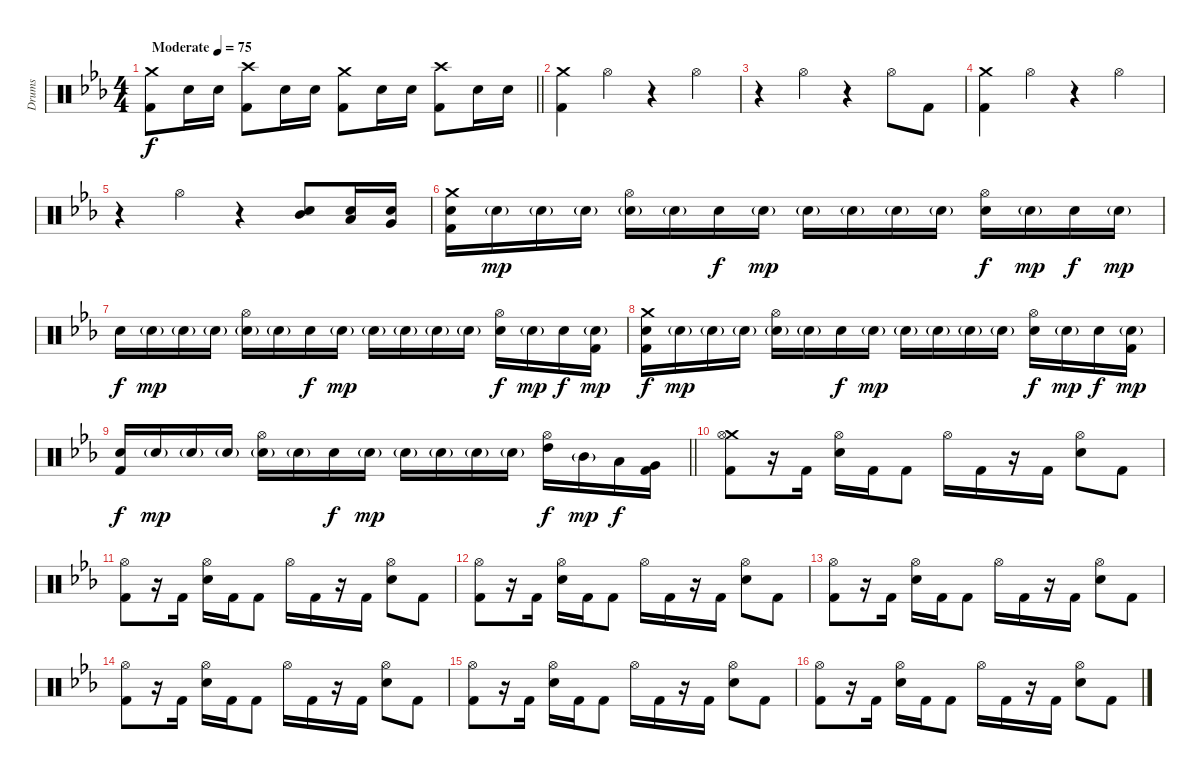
\track ("Drums" "Drums") {instrument percussion}
\staff {score}
\articulation defaults
\ts (4 4)
\tempo (75 "Moderate")
\clef neutral
\barLineRight lightlight
\ks cminor
("Crash medium (hit)" "Kick (hit) 2").8{dy f} "Electric Snare (hit)".16 "Electric Snare (hit)".16 ("Crash high (hit)" "Kick (hit) 2").8 "Electric Snare (hit)".16 "Electric Snare (hit)".16 ("Crash medium (hit)" "Kick (hit) 2").8 "Electric Snare (hit)".16 "Electric Snare (hit)".16 ("Crash high (hit)" "Kick (hit) 2").8 "Electric Snare (hit)".16 "Electric Snare (hit)".16 |
\section ("" "")
("Crash medium (hit)" "Kick (hit) 2").4 "Hi-Hat (open)".4 r.4 "Hi-Hat (open)".4 |
r.4 "Hi-Hat (open)".4 r.4 "Hi-Hat (open)".8 "Kick (hit) 2".8 |
("Crash medium (hit)" "Kick (hit) 2").4 "Hi-Hat (open)".4 r.4 "Hi-Hat (open)".4 |
r.4 "Hi-Hat (open)".4 r.4 ("Mid Tom (hit)" "Electric Snare (hit)").8 ("Low Tom (hit)" "Electric Snare (hit)").16 ("Very Low Tom (hit)" "Electric Snare (hit)").16 |
("Crash medium (hit)" "Electric Snare (hit)" "Kick (hit) 2").16 "Electric Snare (hit)"{g}.16{dy mp} "Electric Snare (hit)"{g}.16 "Electric Snare (hit)"{g}.16 ("Hi-Hat (open)" "Electric Snare (hit)"{g}).16 "Electric Snare (hit)"{g}.16 "Electric Snare (hit)".16{dy f} "Electric Snare (hit)"{g}.16{dy mp} "Electric Snare (hit)"{g}.16 "Electric Snare (hit)"{g}.16 "Electric Snare (hit)"{g}.16 "Electric Snare (hit)"{g}.16 ("Hi-Hat (open)" "Electric Snare (hit)").16{dy f} "Electric Snare (hit)"{g}.16{dy mp} "Electric Snare (hit)".16{dy f} "Electric Snare (hit)"{g}.16{dy mp} |
"Electric Snare (hit)".16{dy f} "Electric Snare (hit)"{g}.16{dy mp} "Electric Snare (hit)"{g}.16 "Electric Snare (hit)"{g}.16 ("Hi-Hat (open)" "Electric Snare (hit)"{g}).16 "Electric Snare (hit)"{g}.16 "Electric Snare (hit)".16{dy f} "Electric Snare (hit)"{g}.16{dy mp} "Electric Snare (hit)"{g}.16 "Electric Snare (hit)"{g}.16 "Electric Snare (hit)"{g}.16 "Electric Snare (hit)"{g}.16 ("Hi-Hat (open)" "Electric Snare (hit)").16{dy f} "Electric Snare (hit)"{g}.16{dy mp} "Electric Snare (hit)".16{dy f} ("Electric Snare (hit)"{g} "Kick (hit) 2").16{dy mp} |
("Crash medium (hit)" "Electric Snare (hit)" "Kick (hit) 2").16{dy f} "Electric Snare (hit)"{g}.16{dy mp} "Electric Snare (hit)"{g}.16 "Electric Snare (hit)"{g}.16 ("Hi-Hat (open)" "Electric Snare (hit)"{g}).16 "Electric Snare (hit)"{g}.16 "Electric Snare (hit)".16{dy f} "Electric Snare (hit)"{g}.16{dy mp} "Electric Snare (hit)"{g}.16 "Electric Snare (hit)"{g}.16 "Electric Snare (hit)"{g}.16 "Electric Snare (hit)"{g}.16 ("Hi-Hat (open)" "Electric Snare (hit)").16{dy f} "Electric Snare (hit)"{g}.16{dy mp} "Electric Snare (hit)".16{dy f} ("Electric Snare (hit)"{g} "Kick (hit) 2").16{dy mp} |
\barLineRight lightlight
("Electric Snare (hit)" "Kick (hit) 2").16{dy f} "Electric Snare (hit)"{g}.16{dy mp} "Electric Snare (hit)"{g}.16 "Electric Snare (hit)"{g}.16 ("Hi-Hat (open)" "Electric Snare (hit)"{g}).16 "Electric Snare (hit)"{g}.16 "Electric Snare (hit)".16{dy f} "Electric Snare (hit)"{g}.16{dy mp} "Electric Snare (hit)"{g}.16 "Electric Snare (hit)"{g}.16 "Electric Snare (hit)"{g}.16 "Electric Snare (hit)"{g}.16 ("Hi-Hat (open)" "High Tom (hit)").16{dy f} "Mid Tom (hit)"{g}.16{dy mp} "Low Tom (hit)".16{dy f} ("Very Low Tom (hit)" "Kick (hit) 2").16 |
\section ("" "")
("Crash medium (hit)" "Hi-Hat (open)" "Kick (hit) 2").8 r.16 "Kick (hit) 2".16 ("Hi-Hat (open)" "Electric Snare (hit)").16 "Kick (hit) 2".16 "Kick (hit) 2".8 "Hi-Hat (open)".16 "Kick (hit) 2".16 r.16 "Kick (hit) 2".16 ("Hi-Hat (open)" "Electric Snare (hit)").8 "Kick (hit) 2".8 |
("Hi-Hat (open)" "Kick (hit) 2").8 r.16 "Kick (hit) 2".16 ("Hi-Hat (open)" "Electric Snare (hit)").16 "Kick (hit) 2".16 "Kick (hit) 2".8 "Hi-Hat (open)".16 "Kick (hit) 2".16 r.16 "Kick (hit) 2".16 ("Hi-Hat (open)" "Electric Snare (hit)").8 "Kick (hit) 2".8 |
("Hi-Hat (open)" "Kick (hit) 2").8 r.16 "Kick (hit) 2".16 ("Hi-Hat (open)" "Electric Snare (hit)").16 "Kick (hit) 2".16 "Kick (hit) 2".8 "Hi-Hat (open)".16 "Kick (hit) 2".16 r.16 "Kick (hit) 2".16 ("Hi-Hat (open)" "Electric Snare (hit)").8 "Kick (hit) 2".8 |
("Hi-Hat (open)" "Kick (hit) 2").8 r.16 "Kick (hit) 2".16 ("Hi-Hat (open)" "Electric Snare (hit)").16 "Kick (hit) 2".16 "Kick (hit) 2".8 "Hi-Hat (open)".16 "Kick (hit) 2".16 r.16 "Kick (hit) 2".16 ("Hi-Hat (open)" "Electric Snare (hit)").8 "Kick (hit) 2".8 |
("Hi-Hat (open)" "Kick (hit) 2").8 r.16 "Kick (hit) 2".16 ("Hi-Hat (open)" "Electric Snare (hit)").16 "Kick (hit) 2".16 "Kick (hit) 2".8 "Hi-Hat (open)".16 "Kick (hit) 2".16 r.16 "Kick (hit) 2".16 ("Hi-Hat (open)" "Electric Snare (hit)").8 "Kick (hit) 2".8 |
("Hi-Hat (open)" "Kick (hit) 2").8 r.16 "Kick (hit) 2".16 ("Hi-Hat (open)" "Electric Snare (hit)").16 "Kick (hit) 2".16 "Kick (hit) 2".8 "Hi-Hat (open)".16 "Kick (hit) 2".16 r.16 "Kick (hit) 2".16 ("Hi-Hat (open)" "Electric Snare (hit)").8 "Kick (hit) 2".8 |
("Hi-Hat (open)" "Kick (hit) 2").8 r.16 "Kick (hit) 2".16 ("Hi-Hat (open)" "Electric Snare (hit)").16 "Kick (hit) 2".16 "Kick (hit) 2".8 "Hi-Hat (open)".16 "Kick (hit) 2".16 r.16 "Kick (hit) 2".16 ("Hi-Hat (open)" "Electric Snare (hit)").8 "Kick (hit) 2".8
